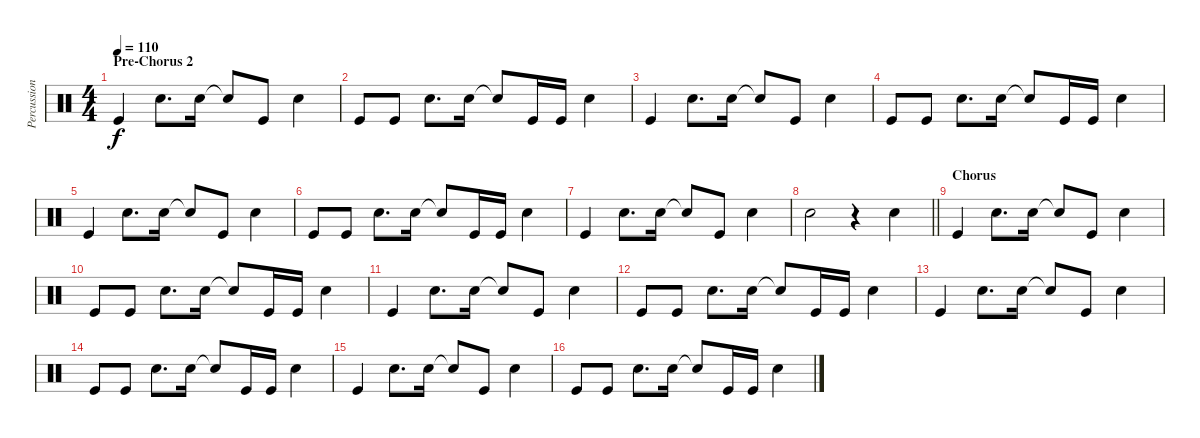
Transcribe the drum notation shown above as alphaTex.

\track ("Percussion" "Percussion") {instrument percussion}
\staff {score}
\articulation defaults
\ts (4 4)
\section ("" "Pre-Chorus 2")
\tempo 110
\clef neutral
\ks c "Kick (hit)".4{dy f} "Snare (hit) 2".8{d} "Snare (hit) 2".16 "Snare (hit) 2"{t}.8 "Kick (hit)".8 "Snare (hit) 2".4
|
"Kick (hit)".8 "Kick (hit)".8 "Snare (hit) 2".8{d} "Snare (hit) 2".16 "Snare (hit) 2"{t}.8 "Kick (hit)".16 "Kick (hit)".16 "Snare (hit) 2".4 |
"Kick (hit)".4 "Snare (hit) 2".8{d} "Snare (hit) 2".16 "Snare (hit) 2"{t}.8 "Kick (hit)".8 "Snare (hit) 2".4 |
"Kick (hit)".8 "Kick (hit)".8 "Snare (hit) 2".8{d} "Snare (hit) 2".16 "Snare (hit) 2"{t}.8 "Kick (hit)".16 "Kick (hit)".16 "Snare (hit) 2".4 |
"Kick (hit)".4 "Snare (hit) 2".8{d} "Snare (hit) 2".16 "Snare (hit) 2"{t}.8 "Kick (hit)".8 "Snare (hit) 2".4 |
"Kick (hit)".8 "Kick (hit)".8 "Snare (hit) 2".8{d} "Snare (hit) 2".16 "Snare (hit) 2"{t}.8 "Kick (hit)".16 "Kick (hit)".16 "Snare (hit) 2".4 |
"Kick (hit)".4 "Snare (hit) 2".8{d} "Snare (hit) 2".16 "Snare (hit) 2"{t}.8 "Kick (hit)".8 "Snare (hit) 2".4 |
\barLineRight lightlight "Snare (hit) 2".2
r.4 "Snare (hit) 2".4 |
\section ("" "Chorus")
"Kick (hit)".4 "Snare (hit) 2".8{d} "Snare (hit) 2".16 "Snare (hit) 2"{t}.8 "Kick (hit)".8 "Snare (hit) 2".4 |
"Kick (hit)".8 "Kick (hit)".8 "Snare (hit) 2".8{d} "Snare (hit) 2".16 "Snare (hit) 2"{t}.8 "Kick (hit)".16 "Kick (hit)".16 "Snare (hit) 2".4 |
"Kick (hit)".4 "Snare (hit) 2".8{d} "Snare (hit) 2".16 "Snare (hit) 2"{t}.8 "Kick (hit)".8 "Snare (hit) 2".4 |
"Kick (hit)".8 "Kick (hit)".8 "Snare (hit) 2".8{d} "Snare (hit) 2".16 "Snare (hit) 2"{t}.8 "Kick (hit)".16 "Kick (hit)".16 "Snare (hit) 2".4 |
"Kick (hit)".4 "Snare (hit) 2".8{d} "Snare (hit) 2".16 "Snare (hit) 2"{t}.8 "Kick (hit)".8 "Snare (hit) 2".4 |
"Kick (hit)".8 "Kick (hit)".8 "Snare (hit) 2".8{d} "Snare (hit) 2".16 "Snare (hit) 2"{t}.8 "Kick (hit)".16 "Kick (hit)".16 "Snare (hit) 2".4 |
"Kick (hit)".4 "Snare (hit) 2".8{d} "Snare (hit) 2".16 "Snare (hit) 2"{t}.8 "Kick (hit)".8 "Snare (hit) 2".4 |
"Kick (hit)".8 "Kick (hit)".8 "Snare (hit) 2".8{d} "Snare (hit) 2".16 "Snare (hit) 2"{t}.8 "Kick (hit)".16 "Kick (hit)".16 "Snare (hit) 2".4
